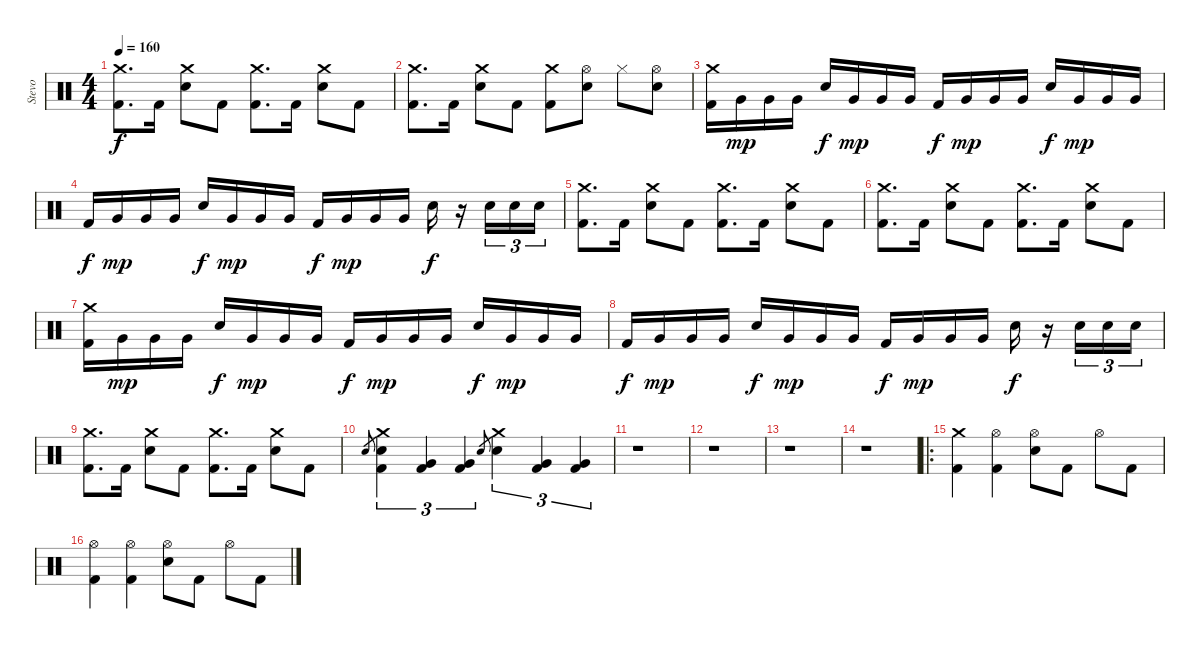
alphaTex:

\track ("Stevo" "Stevo") {instrument percussion}
\staff {score}
\articulation defaults
\ts (4 4)
\tempo 160
\clef neutral
\ks c
("Crash medium (hit)" "Kick (hit) 2").8{d dy f} "Kick (hit) 2".16 ("Crash medium (hit)" "Electric Snare (hit)").8 "Kick (hit) 2".8 ("Crash medium (hit)" "Kick (hit) 2").8{d} "Kick (hit) 2".16 ("Crash medium (hit)" "Electric Snare (hit)").8 "Kick (hit) 2".8 |
("Crash medium (hit)" "Kick (hit) 2").8{d} "Kick (hit) 2".16 ("Crash medium (hit)" "Electric Snare (hit)").8 "Kick (hit) 2".8 ("Crash medium (hit)" "Kick (hit) 2").8 ("Hi-Hat (open)" "Electric Snare (hit)").8 "Hi-Hat (closed)".8 ("Hi-Hat (open)" "Electric Snare (hit)").8 |
("Crash medium (hit)" "Kick (hit) 2").16 "Very Low Tom (hit)".16{dy mp} "Very Low Tom (hit)".16 "Very Low Tom (hit)".16 "Electric Snare (hit)".16{dy f} "Very Low Tom (hit)".16{dy mp} "Very Low Tom (hit)".16 "Very Low Tom (hit)".16 "Kick (hit) 2".16{dy f} "Very Low Tom (hit)".16{dy mp} "Very Low Tom (hit)".16 "Very Low Tom (hit)".16 "Electric Snare (hit)".16{dy f} "Very Low Tom (hit)".16{dy mp} "Very Low Tom (hit)".16 "Very Low Tom (hit)".16 |
"Kick (hit) 2".16{dy f} "Very Low Tom (hit)".16{dy mp} "Very Low Tom (hit)".16 "Very Low Tom (hit)".16 "Electric Snare (hit)".16{dy f} "Very Low Tom (hit)".16{dy mp} "Very Low Tom (hit)".16 "Very Low Tom (hit)".16 "Kick (hit) 2".16{dy f} "Very Low Tom (hit)".16{dy mp} "Very Low Tom (hit)".16 "Very Low Tom (hit)".16 "Electric Snare (hit)".16{dy f} r.16 "Electric Snare (hit)".16{tu (3 2)} "Electric Snare (hit)".16{tu (3 2)} "Electric Snare (hit)".16{tu (3 2)} |
("Crash medium (hit)" "Kick (hit) 2").8{d} "Kick (hit) 2".16 ("Crash medium (hit)" "Electric Snare (hit)").8 "Kick (hit) 2".8 ("Crash medium (hit)" "Kick (hit) 2").8{d} "Kick (hit) 2".16 ("Crash medium (hit)" "Electric Snare (hit)").8 "Kick (hit) 2".8 |
("Crash medium (hit)" "Kick (hit) 2").8{d} "Kick (hit) 2".16 ("Crash medium (hit)" "Electric Snare (hit)").8 "Kick (hit) 2".8 ("Crash medium (hit)" "Kick (hit) 2").8{d} "Kick (hit) 2".16 ("Crash medium (hit)" "Electric Snare (hit)").8 "Kick (hit) 2".8 |
("Crash medium (hit)" "Kick (hit) 2").16 "Very Low Tom (hit)".16{dy mp} "Very Low Tom (hit)".16 "Very Low Tom (hit)".16 "Electric Snare (hit)".16{dy f} "Very Low Tom (hit)".16{dy mp} "Very Low Tom (hit)".16 "Very Low Tom (hit)".16 "Kick (hit) 2".16{dy f} "Very Low Tom (hit)".16{dy mp} "Very Low Tom (hit)".16 "Very Low Tom (hit)".16 "Electric Snare (hit)".16{dy f} "Very Low Tom (hit)".16{dy mp} "Very Low Tom (hit)".16 "Very Low Tom (hit)".16 |
"Kick (hit) 2".16{dy f} "Very Low Tom (hit)".16{dy mp} "Very Low Tom (hit)".16 "Very Low Tom (hit)".16 "Electric Snare (hit)".16{dy f} "Very Low Tom (hit)".16{dy mp} "Very Low Tom (hit)".16 "Very Low Tom (hit)".16 "Kick (hit) 2".16{dy f} "Very Low Tom (hit)".16{dy mp} "Very Low Tom (hit)".16 "Very Low Tom (hit)".16 "Electric Snare (hit)".16{dy f} r.16 "Electric Snare (hit)".16{tu (3 2)} "Electric Snare (hit)".16{tu (3 2)} "Electric Snare (hit)".16{tu (3 2)} |
("Crash medium (hit)" "Kick (hit) 2").8{d} "Kick (hit) 2".16 ("Crash medium (hit)" "Electric Snare (hit)").8 "Kick (hit) 2".8 ("Crash medium (hit)" "Kick (hit) 2").8{d} "Kick (hit) 2".16 ("Crash medium (hit)" "Electric Snare (hit)").8 "Kick (hit) 2".8 |
"Electric Snare (hit)".8{gr} ("Crash medium (hit)" "Electric Snare (hit)" "Kick (hit) 2").4{tu (3 2)} ("Very Low Tom (hit)" "Kick (hit) 2").4{tu (3 2)} ("Very Low Tom (hit)" "Kick (hit) 2").4{tu (3 2)} "Electric Snare (hit)".8{gr} ("Crash medium (hit)" "Electric Snare (hit)").4{tu (3 2)} ("Very Low Tom (hit)" "Kick (hit) 2").4{tu (3 2)} ("Very Low Tom (hit)" "Kick (hit) 2").4{tu (3 2)} |
r.1 |
r.1 |
r.1 |
r.1 |
\ro
("Crash medium (hit)" "Kick (hit) 2").4 ("Hi-Hat (open)" "Kick (hit) 2").4 ("Electric Snare (hit)" "Hi-Hat (open)").8 "Kick (hit) 2".8 "Hi-Hat (open)".8 "Kick (hit) 2".8 |
("Hi-Hat (open)" "Kick (hit) 2").4 ("Hi-Hat (open)" "Kick (hit) 2").4 ("Electric Snare (hit)" "Hi-Hat (open)").8 "Kick (hit) 2".8 "Hi-Hat (open)".8 "Kick (hit) 2".8
